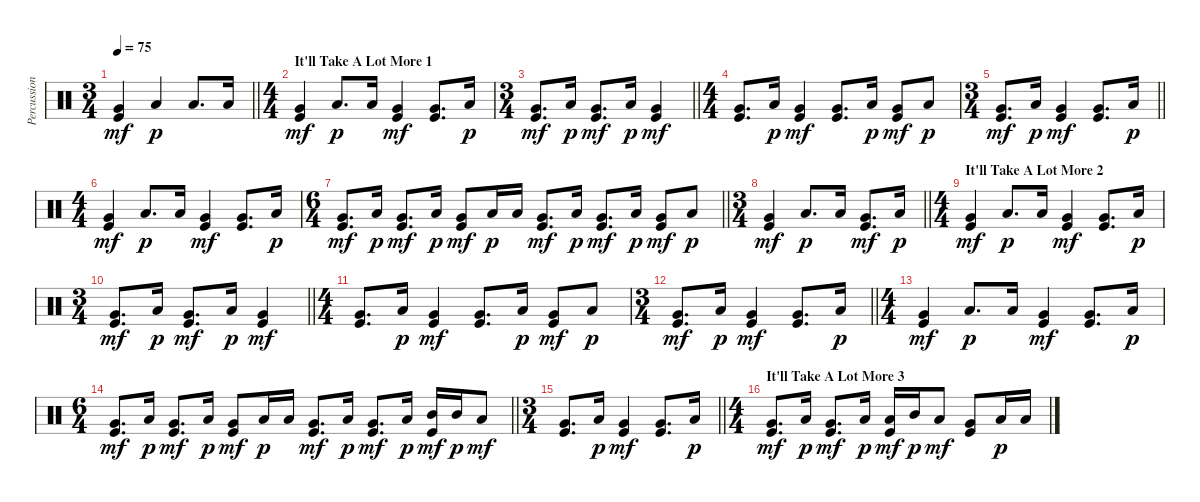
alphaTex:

\track ("Percussion" "Percussion") {instrument percussion}
\staff {score}
\articulation defaults
\ts (3 4)
\tempo 75
\clef neutral
\barLineRight lightlight
\ks c
("Very Low Tom (hit)" "Kick (hit)").4{dy mf} "Low Tom (hit)".4{dy p} "Low Tom (hit)".8{d} "Low Tom (hit)".16 |
\ts (4 4)
\section ("" "It'll Take A Lot More 1")
("Very Low Tom (hit)" "Kick (hit)").4{dy mf} "Low Tom (hit)".8{d dy p} "Low Tom (hit)".16 ("Very Low Tom (hit)" "Kick (hit)").4{dy mf} ("Very Low Tom (hit)" "Kick (hit)").8{d} "Low Tom (hit)".16{dy p} |
\ts (3 4)
\barLineRight lightlight
("Very Low Tom (hit)" "Kick (hit)").8{d dy mf} "Low Tom (hit)".16{dy p} ("Very Low Tom (hit)" "Kick (hit)").8{d dy mf} "Low Tom (hit)".16{dy p} ("Very Low Tom (hit)" "Kick (hit)").4{dy mf} |
\ts (4 4)
("Very Low Tom (hit)" "Kick (hit)").8{d} "Low Tom (hit)".16{dy p} ("Very Low Tom (hit)" "Kick (hit)").4{dy mf} ("Very Low Tom (hit)" "Kick (hit)").8{d} "Low Tom (hit)".16{dy p} ("Very Low Tom (hit)" "Kick (hit)").8{dy mf} "Low Tom (hit)".8{dy p} |
\ts (3 4)
\barLineRight lightlight
("Very Low Tom (hit)" "Kick (hit)").8{d dy mf} "Low Tom (hit)".16{dy p} ("Very Low Tom (hit)" "Kick (hit)").4{dy mf} ("Very Low Tom (hit)" "Kick (hit)").8{d} "Low Tom (hit)".16{dy p} |
\ts (4 4)
("Very Low Tom (hit)" "Kick (hit)").4{dy mf} "Low Tom (hit)".8{d dy p} "Low Tom (hit)".16 ("Very Low Tom (hit)" "Kick (hit)").4{dy mf} ("Very Low Tom (hit)" "Kick (hit)").8{d} "Low Tom (hit)".16{dy p} |
\ts (6 4)
\barLineRight lightlight
("Very Low Tom (hit)" "Kick (hit)").8{d dy mf} "Low Tom (hit)".16{dy p} ("Very Low Tom (hit)" "Kick (hit)").8{d dy mf} "Low Tom (hit)".16{dy p} ("Very Low Tom (hit)" "Kick (hit)").8{dy mf} "Low Tom (hit)".16{dy p} "Low Tom (hit)".16 ("Very Low Tom (hit)" "Kick (hit)").8{d dy mf} "Low Tom (hit)".16{dy p} ("Very Low Tom (hit)" "Kick (hit)").8{d dy mf} "Low Tom (hit)".16{dy p} ("Very Low Tom (hit)" "Kick (hit)").8{dy mf} "Low Tom (hit)".8{dy p} |
\ts (3 4)
\barLineRight lightlight
("Very Low Tom (hit)" "Kick (hit)").4{dy mf} "Low Tom (hit)".8{d dy p} "Low Tom (hit)".16 ("Very Low Tom (hit)" "Kick (hit)").8{d dy mf} "Low Tom (hit)".16{dy p} |
\ts (4 4)
\section ("" "It'll Take A Lot More 2")
("Very Low Tom (hit)" "Kick (hit)").4{dy mf} "Low Tom (hit)".8{d dy p} "Low Tom (hit)".16 ("Very Low Tom (hit)" "Kick (hit)").4{dy mf} ("Very Low Tom (hit)" "Kick (hit)").8{d} "Low Tom (hit)".16{dy p} |
\ts (3 4)
\barLineRight lightlight
("Very Low Tom (hit)" "Kick (hit)").8{d dy mf} "Low Tom (hit)".16{dy p} ("Very Low Tom (hit)" "Kick (hit)").8{d dy mf} "Low Tom (hit)".16{dy p} ("Very Low Tom (hit)" "Kick (hit)").4{dy mf} |
\ts (4 4)
("Very Low Tom (hit)" "Kick (hit)").8{d} "Low Tom (hit)".16{dy p} ("Very Low Tom (hit)" "Kick (hit)").4{dy mf} ("Very Low Tom (hit)" "Kick (hit)").8{d} "Low Tom (hit)".16{dy p} ("Very Low Tom (hit)" "Kick (hit)").8{dy mf} "Low Tom (hit)".8{dy p} |
\ts (3 4)
\barLineRight lightlight
("Very Low Tom (hit)" "Kick (hit)").8{d dy mf} "Low Tom (hit)".16{dy p} ("Very Low Tom (hit)" "Kick (hit)").4{dy mf} ("Very Low Tom (hit)" "Kick (hit)").8{d} "Low Tom (hit)".16{dy p} |
\ts (4 4)
("Very Low Tom (hit)" "Kick (hit)").4{dy mf} "Low Tom (hit)".8{d dy p} "Low Tom (hit)".16 ("Very Low Tom (hit)" "Kick (hit)").4{dy mf} ("Very Low Tom (hit)" "Kick (hit)").8{d} "Low Tom (hit)".16{dy p} |
\ts (6 4)
\barLineRight lightlight
("Very Low Tom (hit)" "Kick (hit)").8{d dy mf} "Low Tom (hit)".16{dy p} ("Very Low Tom (hit)" "Kick (hit)").8{d dy mf} "Low Tom (hit)".16{dy p} ("Very Low Tom (hit)" "Kick (hit)").8{dy mf} "Low Tom (hit)".16{dy p} "Low Tom (hit)".16 ("Very Low Tom (hit)" "Kick (hit)").8{d dy mf} "Low Tom (hit)".16{dy p} ("Very Low Tom (hit)" "Kick (hit)").8{d dy mf} "Low Tom (hit)".16{dy p} ("Mid Tom (hit)" "Kick (hit)").16{dy mf} "Mid Tom (hit)".16{dy p} "Low Tom (hit)".8{dy mf} |
\ts (3 4)
\barLineRight lightlight
("Very Low Tom (hit)" "Kick (hit)").8{d} "Low Tom (hit)".16{dy p} ("Very Low Tom (hit)" "Kick (hit)").4{dy mf} ("Very Low Tom (hit)" "Kick (hit)").8{d} "Low Tom (hit)".16{dy p} |
\ts (4 4)
\section ("" "It'll Take A Lot More 3")
("Very Low Tom (hit)" "Kick (hit)").8{d dy mf} "Low Tom (hit)".16{dy p} ("Very Low Tom (hit)" "Kick (hit)").8{d dy mf} "Low Tom (hit)".16{dy p} ("Low Tom (hit)" "Kick (hit)").16{dy mf} "Mid Tom (hit)".16{dy p} "Low Tom (hit)".8{dy mf} ("Very Low Tom (hit)" "Kick (hit)").8 "Low Tom (hit)".16{dy p} "Low Tom (hit)".16
